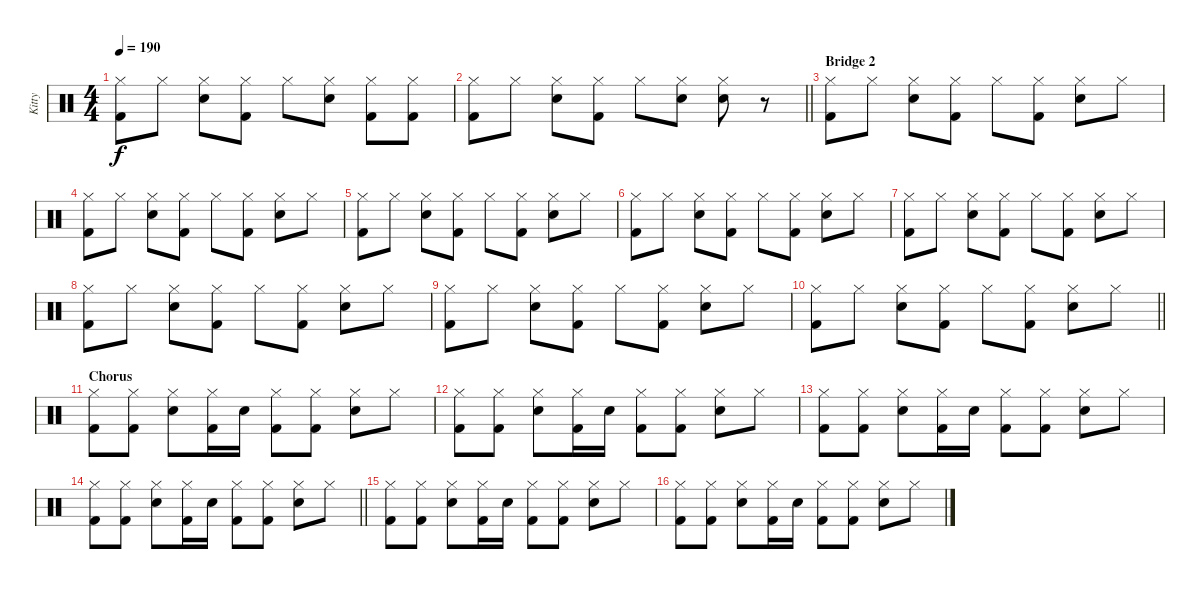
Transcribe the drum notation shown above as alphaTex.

\track ("Kitty" "Kitty") {instrument percussion}
\staff {score}
\articulation defaults
\ts (4 4)
\tempo 190
\clef neutral
\ks c
("Hi-Hat (closed)" "Kick (hit) 2").8{dy f} "Hi-Hat (closed)".8 ("Hi-Hat (closed)" "Snare (hit) 2").8 ("Hi-Hat (closed)" "Kick (hit) 2").8 "Hi-Hat (closed)".8 ("Hi-Hat (closed)" "Snare (hit) 2").8 ("Hi-Hat (closed)" "Kick (hit) 2").8 ("Hi-Hat (closed)" "Kick (hit) 2").8 |
\barLineRight lightlight
("Hi-Hat (closed)" "Kick (hit) 2").8 "Hi-Hat (closed)".8 ("Hi-Hat (closed)" "Snare (hit) 2").8 ("Hi-Hat (closed)" "Kick (hit) 2").8 "Hi-Hat (closed)".8 ("Hi-Hat (closed)" "Snare (hit) 2").8 ("Hi-Hat (closed)" "Snare (hit) 2").8 r.8 |
\section ("" "Bridge 2")
("Hi-Hat (closed)" "Kick (hit) 2").8 "Hi-Hat (closed)".8 ("Hi-Hat (closed)" "Snare (hit) 2").8 ("Hi-Hat (closed)" "Kick (hit) 2").8 "Hi-Hat (closed)".8 ("Hi-Hat (closed)" "Kick (hit) 2").8 ("Hi-Hat (closed)" "Snare (hit) 2").8 "Hi-Hat (closed)".8 |
("Hi-Hat (closed)" "Kick (hit) 2").8 "Hi-Hat (closed)".8 ("Hi-Hat (closed)" "Snare (hit) 2").8 ("Hi-Hat (closed)" "Kick (hit) 2").8 "Hi-Hat (closed)".8 ("Hi-Hat (closed)" "Kick (hit) 2").8 ("Hi-Hat (closed)" "Snare (hit) 2").8 "Hi-Hat (closed)".8 |
("Hi-Hat (closed)" "Kick (hit) 2").8 "Hi-Hat (closed)".8 ("Hi-Hat (closed)" "Snare (hit) 2").8 ("Hi-Hat (closed)" "Kick (hit) 2").8 "Hi-Hat (closed)".8 ("Hi-Hat (closed)" "Kick (hit) 2").8 ("Hi-Hat (closed)" "Snare (hit) 2").8 "Hi-Hat (closed)".8 |
("Hi-Hat (closed)" "Kick (hit) 2").8 "Hi-Hat (closed)".8 ("Hi-Hat (closed)" "Snare (hit) 2").8 ("Hi-Hat (closed)" "Kick (hit) 2").8 "Hi-Hat (closed)".8 ("Hi-Hat (closed)" "Kick (hit) 2").8 ("Hi-Hat (closed)" "Snare (hit) 2").8 "Hi-Hat (closed)".8 |
("Hi-Hat (closed)" "Kick (hit) 2").8 "Hi-Hat (closed)".8 ("Hi-Hat (closed)" "Snare (hit) 2").8 ("Hi-Hat (closed)" "Kick (hit) 2").8 "Hi-Hat (closed)".8 ("Hi-Hat (closed)" "Kick (hit) 2").8 ("Hi-Hat (closed)" "Snare (hit) 2").8 "Hi-Hat (closed)".8 |
("Hi-Hat (closed)" "Kick (hit) 2").8 "Hi-Hat (closed)".8 ("Hi-Hat (closed)" "Snare (hit) 2").8 ("Hi-Hat (closed)" "Kick (hit) 2").8 "Hi-Hat (closed)".8 ("Hi-Hat (closed)" "Kick (hit) 2").8 ("Hi-Hat (closed)" "Snare (hit) 2").8 "Hi-Hat (closed)".8 |
("Hi-Hat (closed)" "Kick (hit) 2").8 "Hi-Hat (closed)".8 ("Hi-Hat (closed)" "Snare (hit) 2").8 ("Hi-Hat (closed)" "Kick (hit) 2").8 "Hi-Hat (closed)".8 ("Hi-Hat (closed)" "Kick (hit) 2").8 ("Hi-Hat (closed)" "Snare (hit) 2").8 "Hi-Hat (closed)".8 |
\barLineRight lightlight
("Hi-Hat (closed)" "Kick (hit) 2").8 "Hi-Hat (closed)".8 ("Hi-Hat (closed)" "Snare (hit) 2").8 ("Hi-Hat (closed)" "Kick (hit) 2").8 "Hi-Hat (closed)".8 ("Hi-Hat (closed)" "Kick (hit) 2").8 ("Hi-Hat (closed)" "Snare (hit) 2").8 "Hi-Hat (closed)".8 |
\section ("" "Chorus")
("Hi-Hat (closed)" "Kick (hit) 2").8 ("Hi-Hat (closed)" "Kick (hit) 2").8 ("Hi-Hat (closed)" "Snare (hit) 2").8 ("Hi-Hat (closed)" "Kick (hit) 2").16 "Snare (hit) 2".16 ("Hi-Hat (closed)" "Kick (hit) 2").8 ("Hi-Hat (closed)" "Kick (hit) 2").8 ("Hi-Hat (closed)" "Snare (hit) 2").8 "Hi-Hat (closed)".8 |
("Hi-Hat (closed)" "Kick (hit) 2").8 ("Hi-Hat (closed)" "Kick (hit) 2").8 ("Hi-Hat (closed)" "Snare (hit) 2").8 ("Hi-Hat (closed)" "Kick (hit) 2").16 "Snare (hit) 2".16 ("Hi-Hat (closed)" "Kick (hit) 2").8 ("Hi-Hat (closed)" "Kick (hit) 2").8 ("Hi-Hat (closed)" "Snare (hit) 2").8 "Hi-Hat (closed)".8 |
("Hi-Hat (closed)" "Kick (hit) 2").8 ("Hi-Hat (closed)" "Kick (hit) 2").8 ("Hi-Hat (closed)" "Snare (hit) 2").8 ("Hi-Hat (closed)" "Kick (hit) 2").16 "Snare (hit) 2".16 ("Hi-Hat (closed)" "Kick (hit) 2").8 ("Hi-Hat (closed)" "Kick (hit) 2").8 ("Hi-Hat (closed)" "Snare (hit) 2").8 "Hi-Hat (closed)".8 |
\barLineRight lightlight
("Hi-Hat (closed)" "Kick (hit) 2").8 ("Hi-Hat (closed)" "Kick (hit) 2").8 ("Hi-Hat (closed)" "Snare (hit) 2").8 ("Hi-Hat (closed)" "Kick (hit) 2").16 "Snare (hit) 2".16 ("Hi-Hat (closed)" "Kick (hit) 2").8 ("Hi-Hat (closed)" "Kick (hit) 2").8 ("Hi-Hat (closed)" "Snare (hit) 2").8 "Hi-Hat (closed)".8 |
("Hi-Hat (closed)" "Kick (hit) 2").8 ("Hi-Hat (closed)" "Kick (hit) 2").8 ("Hi-Hat (closed)" "Snare (hit) 2").8 ("Hi-Hat (closed)" "Kick (hit) 2").16 "Snare (hit) 2".16 ("Hi-Hat (closed)" "Kick (hit) 2").8 ("Hi-Hat (closed)" "Kick (hit) 2").8 ("Hi-Hat (closed)" "Snare (hit) 2").8 "Hi-Hat (closed)".8 |
("Hi-Hat (closed)" "Kick (hit) 2").8 ("Hi-Hat (closed)" "Kick (hit) 2").8 ("Hi-Hat (closed)" "Snare (hit) 2").8 ("Hi-Hat (closed)" "Kick (hit) 2").16 "Snare (hit) 2".16 ("Hi-Hat (closed)" "Kick (hit) 2").8 ("Hi-Hat (closed)" "Kick (hit) 2").8 ("Hi-Hat (closed)" "Snare (hit) 2").8 "Hi-Hat (closed)".8
